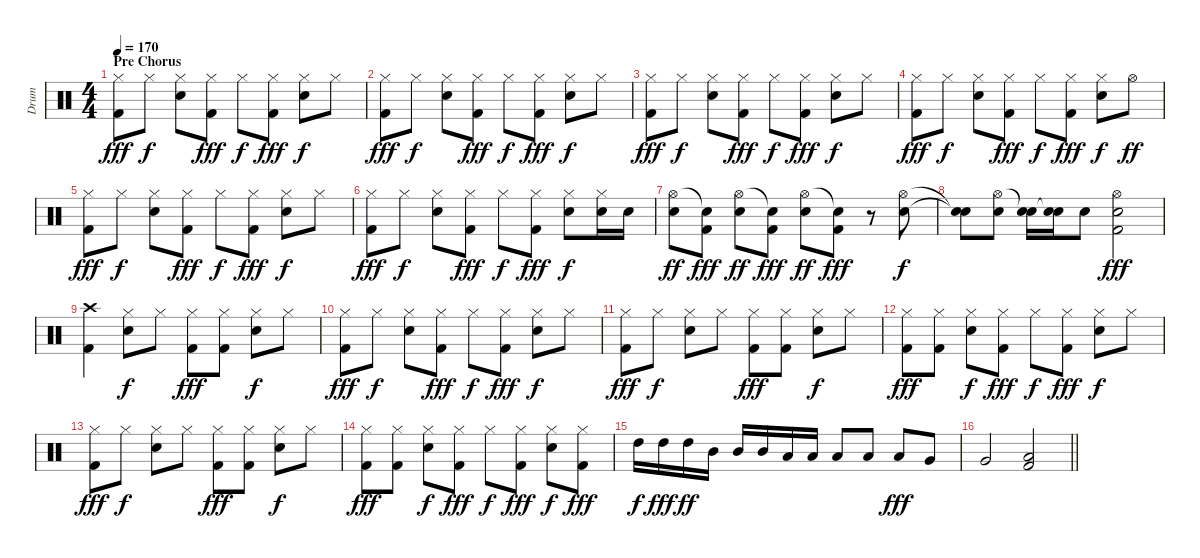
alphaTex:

\track ("Drum" "Drum") {instrument percussion}
\staff {score}
\articulation defaults
\ts (4 4)
\section ("" "Pre Chorus")
\tempo 170
\clef neutral
\ks c
("Hi-Hat (closed)" "Kick (hit) 2").8{dy fff} "Hi-Hat (closed)".8{dy f} ("Hi-Hat (closed)" "Snare (hit) 2").8 ("Hi-Hat (closed)" "Kick (hit) 2").8{dy fff} "Hi-Hat (closed)".8{dy f} ("Hi-Hat (closed)" "Kick (hit) 2").8{dy fff} ("Hi-Hat (closed)" "Snare (hit) 2").8{dy f} "Hi-Hat (closed)".8 |
("Hi-Hat (closed)" "Kick (hit) 2").8{dy fff} "Hi-Hat (closed)".8{dy f} ("Hi-Hat (closed)" "Snare (hit) 2").8 ("Hi-Hat (closed)" "Kick (hit) 2").8{dy fff} "Hi-Hat (closed)".8{dy f} ("Hi-Hat (closed)" "Kick (hit) 2").8{dy fff} ("Hi-Hat (closed)" "Snare (hit) 2").8{dy f} "Hi-Hat (closed)".8 |
("Hi-Hat (closed)" "Kick (hit) 2").8{dy fff} "Hi-Hat (closed)".8{dy f} ("Hi-Hat (closed)" "Snare (hit) 2").8 ("Hi-Hat (closed)" "Kick (hit) 2").8{dy fff} "Hi-Hat (closed)".8{dy f} ("Hi-Hat (closed)" "Kick (hit) 2").8{dy fff} ("Hi-Hat (closed)" "Snare (hit) 2").8{dy f} "Hi-Hat (closed)".8 |
("Hi-Hat (closed)" "Kick (hit) 2").8{dy fff} "Hi-Hat (closed)".8{dy f} ("Hi-Hat (closed)" "Snare (hit) 2").8 ("Hi-Hat (closed)" "Kick (hit) 2").8{dy fff} "Hi-Hat (closed)".8{dy f} ("Hi-Hat (closed)" "Kick (hit) 2").8{dy fff} ("Hi-Hat (closed)" "Snare (hit) 2").8{dy f} "Hi-Hat (open)".8{dy ff} |
("Hi-Hat (closed)" "Kick (hit) 2").8{dy fff} "Hi-Hat (closed)".8{dy f} ("Hi-Hat (closed)" "Snare (hit) 2").8 ("Hi-Hat (closed)" "Kick (hit) 2").8{dy fff} "Hi-Hat (closed)".8{dy f} ("Hi-Hat (closed)" "Kick (hit) 2").8{dy fff} ("Hi-Hat (closed)" "Snare (hit) 2").8{dy f} "Hi-Hat (closed)".8 |
("Hi-Hat (closed)" "Kick (hit) 2").8{dy fff} "Hi-Hat (closed)".8{dy f} ("Hi-Hat (closed)" "Snare (hit) 2").8 ("Hi-Hat (closed)" "Kick (hit) 2").8{dy fff} "Hi-Hat (closed)".8{dy f} ("Hi-Hat (closed)" "Kick (hit) 2").8{dy fff} ("Hi-Hat (closed)" "Snare (hit) 2").8{dy f} ("Hi-Hat (closed)" "Snare (hit) 2").16 "Snare (hit) 2".16 |
("Hi-Hat (open)" "Snare (hit) 2").8{dy ff} ("Snare (hit)"{t} "Kick (hit) 2").8{dy fff} ("Hi-Hat (open)" "Snare (hit) 2").8{dy ff} ("Snare (hit)"{t} "Kick (hit) 2").8{dy fff} ("Hi-Hat (open)" "Snare (hit) 2").8{dy ff} ("Snare (hit)"{t} "Kick (hit) 2").8{dy fff} r.8 ("Hi-Hat (open)" "Snare (hit) 2").8{dy f} |
("Snare (hit)"{t} "Snare (hit) 2"{t}).8 ("Hi-Hat (open)" "Snare (hit) 2").8 ("Snare (hit)"{t} "Snare (hit) 2").16 ("Snare (hit)"{t} "Snare (hit) 2").16 "Snare (hit) 2".8 ("Hi-Hat (open)" "Snare (hit) 2" "Kick (hit) 2").2{dy fff} |
("Crash high (hit)" "Kick (hit) 2").4 ("Hi-Hat (closed)" "Snare (hit) 2").8{dy f} "Hi-Hat (closed)".8 ("Hi-Hat (closed)" "Kick (hit) 2").8{dy fff} ("Hi-Hat (closed)" "Kick (hit) 2").8 ("Hi-Hat (closed)" "Snare (hit) 2").8{dy f} "Hi-Hat (closed)".8 |
("Hi-Hat (closed)" "Kick (hit) 2").8{dy fff} "Hi-Hat (closed)".8{dy f} ("Hi-Hat (closed)" "Snare (hit) 2").8 ("Hi-Hat (closed)" "Kick (hit) 2").8{dy fff} "Hi-Hat (closed)".8{dy f} ("Hi-Hat (closed)" "Kick (hit) 2").8{dy fff} ("Hi-Hat (closed)" "Snare (hit) 2").8{dy f} "Hi-Hat (closed)".8 |
("Hi-Hat (closed)" "Kick (hit) 2").8{dy fff} "Hi-Hat (closed)".8{dy f} ("Hi-Hat (closed)" "Snare (hit) 2").8 "Hi-Hat (closed)".8 ("Hi-Hat (closed)" "Kick (hit) 2").8{dy fff} ("Hi-Hat (closed)" "Kick (hit) 2").8 ("Hi-Hat (closed)" "Snare (hit) 2").8{dy f} "Hi-Hat (closed)".8 |
("Hi-Hat (closed)" "Kick (hit) 2").8{dy fff} ("Hi-Hat (closed)" "Kick (hit) 2").8 ("Hi-Hat (closed)" "Snare (hit) 2").8{dy f} ("Hi-Hat (closed)" "Kick (hit) 2").8{dy fff} "Hi-Hat (closed)".8{dy f} ("Hi-Hat (closed)" "Kick (hit) 2").8{dy fff} ("Hi-Hat (closed)" "Snare (hit) 2").8{dy f} "Hi-Hat (closed)".8 |
("Hi-Hat (closed)" "Kick (hit) 2").8{dy fff} "Hi-Hat (closed)".8{dy f} ("Hi-Hat (closed)" "Snare (hit) 2").8 "Hi-Hat (closed)".8 ("Hi-Hat (closed)" "Kick (hit) 2").8{dy fff} ("Hi-Hat (closed)" "Kick (hit) 2").8 ("Hi-Hat (closed)" "Snare (hit) 2").8{dy f} "Hi-Hat (closed)".8 |
("Hi-Hat (closed)" "Kick (hit) 2").8{dy fff} ("Hi-Hat (closed)" "Kick (hit) 2").8 ("Hi-Hat (closed)" "Snare (hit) 2").8{dy f} ("Hi-Hat (closed)" "Kick (hit) 2").8{dy fff} "Hi-Hat (closed)".8{dy f} ("Hi-Hat (closed)" "Kick (hit) 2").8{dy fff} ("Hi-Hat (closed)" "Snare (hit) 2").8{dy f} ("Hi-Hat (closed)" "Kick (hit) 2").8{dy fff} |
"High Tom (hit)".16{dy f} "High Tom (hit)".16{dy fff} "High Tom (hit)".16{dy ff} "Mid Tom (hit)".16 "Mid Tom (hit)".16 "Mid Tom (hit)".16 "Low Tom (hit)".16 "Low Tom (hit)".16 "Low Tom (hit)".8 "Low Tom (hit)".8 "Low Tom (hit)".8{dy fff} "Very Low Tom (hit)".8 |
\barLineRight lightlight "Very Low Tom (hit)".2
("Low Floor Tom (hit)" "Kick (hit) 2").2
